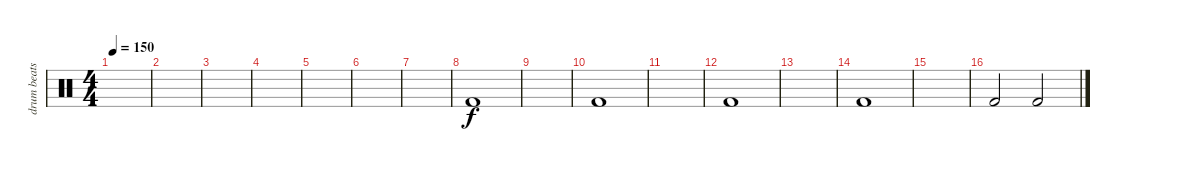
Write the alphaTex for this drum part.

\track ("drum beats" "drum beats") {instrument percussion}
\staff {score}
\articulation defaults
\ts (4 4)
\tempo 150
\clef neutral
\ks c
|
|
|
|
|
|
|
"Kick (hit) 2".1 |
|
"Kick (hit) 2".1 |
|
"Kick (hit) 2".1 |
|
"Kick (hit) 2".1 |
|
"Kick (hit) 2".2 "Kick (hit) 2".2
